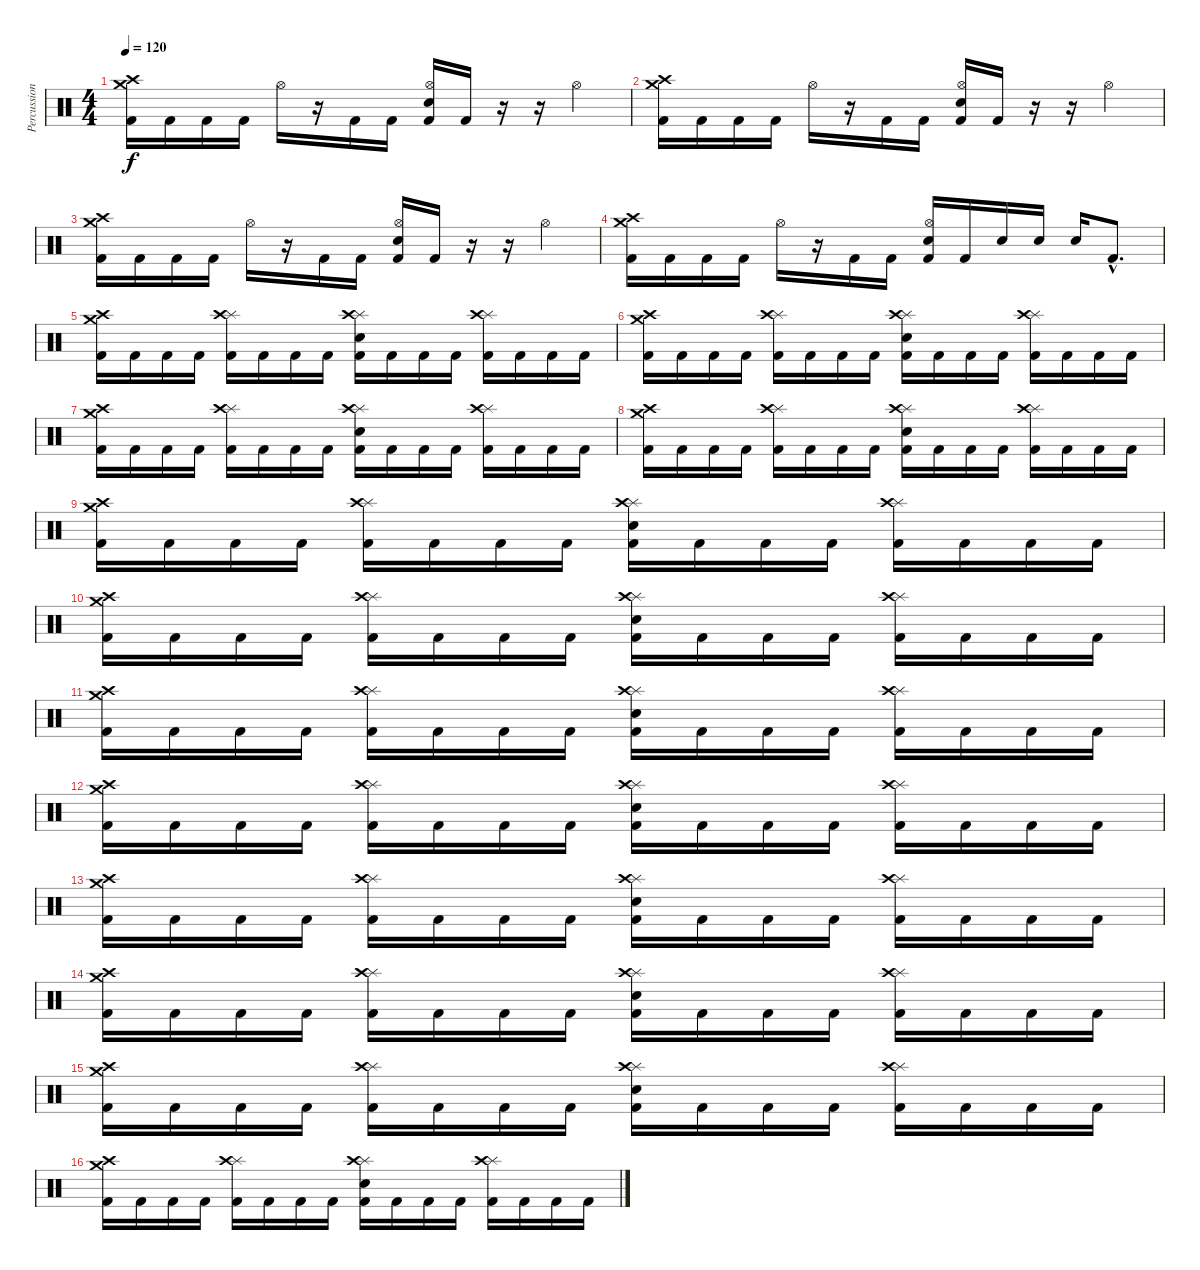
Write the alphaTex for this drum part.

\track ("Percussion" "Percussion") {instrument percussion}
\staff {score}
\articulation defaults
\ts (4 4)
\tempo 120
\clef neutral
\ks c
("Crash medium (hit)" "Crash high (hit)" "Kick (hit) 2").16{dy f} "Kick (hit) 2".16 "Kick (hit) 2".16 "Kick (hit) 2".16 "Hi-Hat (open)".16 r.16 "Kick (hit) 2".16 "Kick (hit) 2".16 ("Hi-Hat (open)" "Snare (hit) 2" "Kick (hit) 2").16 "Kick (hit) 2".16 r.16 r.16 "Hi-Hat (open)".4 |
("Crash medium (hit)" "Crash high (hit)" "Kick (hit) 2").16 "Kick (hit) 2".16 "Kick (hit) 2".16 "Kick (hit) 2".16 "Hi-Hat (open)".16 r.16 "Kick (hit) 2".16 "Kick (hit) 2".16 ("Hi-Hat (open)" "Snare (hit) 2" "Kick (hit) 2").16 "Kick (hit) 2".16 r.16 r.16 "Hi-Hat (open)".4 |
("Crash medium (hit)" "Crash high (hit)" "Kick (hit) 2").16 "Kick (hit) 2".16 "Kick (hit) 2".16 "Kick (hit) 2".16 "Hi-Hat (open)".16 r.16 "Kick (hit) 2".16 "Kick (hit) 2".16 ("Hi-Hat (open)" "Snare (hit) 2" "Kick (hit) 2").16 "Kick (hit) 2".16 r.16 r.16 "Hi-Hat (open)".4 |
("Crash medium (hit)" "Crash high (hit)" "Kick (hit) 2").16 "Kick (hit) 2".16 "Kick (hit) 2".16 "Kick (hit) 2".16 "Hi-Hat (open)".16 r.16 "Kick (hit) 2".16 "Kick (hit) 2".16 ("Hi-Hat (open)" "Snare (hit) 2" "Kick (hit) 2").16 "Kick (hit) 2".16 "Snare (hit) 2".16 "Snare (hit) 2".16 "Snare (hit) 2".16 "Kick (hit) 2"{hac}.8{d} |
("Crash medium (hit)" "Crash high (hit)" "Kick (hit) 2").16 "Kick (hit) 2".16 "Kick (hit) 2".16 "Kick (hit) 2".16 ("Splash (hit)" "Crash high (hit)" "Kick (hit) 2").16 "Kick (hit) 2".16 "Kick (hit) 2".16 "Kick (hit) 2".16 ("Splash (hit)" "Crash high (hit)" "Snare (hit) 2" "Kick (hit) 2").16 "Kick (hit) 2".16 "Kick (hit) 2".16 "Kick (hit) 2".16 ("Splash (hit)" "Crash high (hit)" "Kick (hit) 2").16 "Kick (hit) 2".16 "Kick (hit) 2".16 "Kick (hit) 2".16 |
("Crash medium (hit)" "Crash high (hit)" "Kick (hit) 2").16 "Kick (hit) 2".16 "Kick (hit) 2".16 "Kick (hit) 2".16 ("Splash (hit)" "Crash high (hit)" "Kick (hit) 2").16 "Kick (hit) 2".16 "Kick (hit) 2".16 "Kick (hit) 2".16 ("Splash (hit)" "Crash high (hit)" "Snare (hit) 2" "Kick (hit) 2").16 "Kick (hit) 2".16 "Kick (hit) 2".16 "Kick (hit) 2".16 ("Splash (hit)" "Crash high (hit)" "Kick (hit) 2").16 "Kick (hit) 2".16 "Kick (hit) 2".16 "Kick (hit) 2".16 |
("Crash medium (hit)" "Crash high (hit)" "Kick (hit) 2").16 "Kick (hit) 2".16 "Kick (hit) 2".16 "Kick (hit) 2".16 ("Splash (hit)" "Crash high (hit)" "Kick (hit) 2").16 "Kick (hit) 2".16 "Kick (hit) 2".16 "Kick (hit) 2".16 ("Splash (hit)" "Crash high (hit)" "Snare (hit) 2" "Kick (hit) 2").16 "Kick (hit) 2".16 "Kick (hit) 2".16 "Kick (hit) 2".16 ("Splash (hit)" "Crash high (hit)" "Kick (hit) 2").16 "Kick (hit) 2".16 "Kick (hit) 2".16 "Kick (hit) 2".16 |
("Crash medium (hit)" "Crash high (hit)" "Kick (hit) 2").16 "Kick (hit) 2".16 "Kick (hit) 2".16 "Kick (hit) 2".16 ("Splash (hit)" "Crash high (hit)" "Kick (hit) 2").16 "Kick (hit) 2".16 "Kick (hit) 2".16 "Kick (hit) 2".16 ("Splash (hit)" "Crash high (hit)" "Snare (hit) 2" "Kick (hit) 2").16 "Kick (hit) 2".16 "Kick (hit) 2".16 "Kick (hit) 2".16 ("Splash (hit)" "Crash high (hit)" "Kick (hit) 2").16 "Kick (hit) 2".16 "Kick (hit) 2".16 "Kick (hit) 2".16 |
("Crash medium (hit)" "Crash high (hit)" "Kick (hit) 2").16 "Kick (hit) 2".16 "Kick (hit) 2".16 "Kick (hit) 2".16 ("Splash (hit)" "Crash high (hit)" "Kick (hit) 2").16 "Kick (hit) 2".16 "Kick (hit) 2".16 "Kick (hit) 2".16 ("Splash (hit)" "Crash high (hit)" "Snare (hit) 2" "Kick (hit) 2").16 "Kick (hit) 2".16 "Kick (hit) 2".16 "Kick (hit) 2".16 ("Splash (hit)" "Crash high (hit)" "Kick (hit) 2").16 "Kick (hit) 2".16 "Kick (hit) 2".16 "Kick (hit) 2".16 |
("Crash medium (hit)" "Crash high (hit)" "Kick (hit) 2").16 "Kick (hit) 2".16 "Kick (hit) 2".16 "Kick (hit) 2".16 ("Splash (hit)" "Crash high (hit)" "Kick (hit) 2").16 "Kick (hit) 2".16 "Kick (hit) 2".16 "Kick (hit) 2".16 ("Splash (hit)" "Crash high (hit)" "Snare (hit) 2" "Kick (hit) 2").16 "Kick (hit) 2".16 "Kick (hit) 2".16 "Kick (hit) 2".16 ("Splash (hit)" "Crash high (hit)" "Kick (hit) 2").16 "Kick (hit) 2".16 "Kick (hit) 2".16 "Kick (hit) 2".16 |
("Crash medium (hit)" "Crash high (hit)" "Kick (hit) 2").16 "Kick (hit) 2".16 "Kick (hit) 2".16 "Kick (hit) 2".16 ("Splash (hit)" "Crash high (hit)" "Kick (hit) 2").16 "Kick (hit) 2".16 "Kick (hit) 2".16 "Kick (hit) 2".16 ("Splash (hit)" "Crash high (hit)" "Snare (hit) 2" "Kick (hit) 2").16 "Kick (hit) 2".16 "Kick (hit) 2".16 "Kick (hit) 2".16 ("Splash (hit)" "Crash high (hit)" "Kick (hit) 2").16 "Kick (hit) 2".16 "Kick (hit) 2".16 "Kick (hit) 2".16 |
("Crash medium (hit)" "Crash high (hit)" "Kick (hit) 2").16 "Kick (hit) 2".16 "Kick (hit) 2".16 "Kick (hit) 2".16 ("Splash (hit)" "Crash high (hit)" "Kick (hit) 2").16 "Kick (hit) 2".16 "Kick (hit) 2".16 "Kick (hit) 2".16 ("Splash (hit)" "Crash high (hit)" "Snare (hit) 2" "Kick (hit) 2").16 "Kick (hit) 2".16 "Kick (hit) 2".16 "Kick (hit) 2".16 ("Splash (hit)" "Crash high (hit)" "Kick (hit) 2").16 "Kick (hit) 2".16 "Kick (hit) 2".16 "Kick (hit) 2".16 |
("Crash medium (hit)" "Crash high (hit)" "Kick (hit) 2").16 "Kick (hit) 2".16 "Kick (hit) 2".16 "Kick (hit) 2".16 ("Splash (hit)" "Crash high (hit)" "Kick (hit) 2").16 "Kick (hit) 2".16 "Kick (hit) 2".16 "Kick (hit) 2".16 ("Splash (hit)" "Crash high (hit)" "Snare (hit) 2" "Kick (hit) 2").16 "Kick (hit) 2".16 "Kick (hit) 2".16 "Kick (hit) 2".16 ("Splash (hit)" "Crash high (hit)" "Kick (hit) 2").16 "Kick (hit) 2".16 "Kick (hit) 2".16 "Kick (hit) 2".16 |
("Crash medium (hit)" "Crash high (hit)" "Kick (hit) 2").16 "Kick (hit) 2".16 "Kick (hit) 2".16 "Kick (hit) 2".16 ("Splash (hit)" "Crash high (hit)" "Kick (hit) 2").16 "Kick (hit) 2".16 "Kick (hit) 2".16 "Kick (hit) 2".16 ("Splash (hit)" "Crash high (hit)" "Snare (hit) 2" "Kick (hit) 2").16 "Kick (hit) 2".16 "Kick (hit) 2".16 "Kick (hit) 2".16 ("Splash (hit)" "Crash high (hit)" "Kick (hit) 2").16 "Kick (hit) 2".16 "Kick (hit) 2".16 "Kick (hit) 2".16 |
("Crash medium (hit)" "Crash high (hit)" "Kick (hit) 2").16 "Kick (hit) 2".16 "Kick (hit) 2".16 "Kick (hit) 2".16 ("Splash (hit)" "Crash high (hit)" "Kick (hit) 2").16 "Kick (hit) 2".16 "Kick (hit) 2".16 "Kick (hit) 2".16 ("Splash (hit)" "Crash high (hit)" "Snare (hit) 2" "Kick (hit) 2").16 "Kick (hit) 2".16 "Kick (hit) 2".16 "Kick (hit) 2".16 ("Splash (hit)" "Crash high (hit)" "Kick (hit) 2").16 "Kick (hit) 2".16 "Kick (hit) 2".16 "Kick (hit) 2".16 |
("Crash medium (hit)" "Crash high (hit)" "Kick (hit) 2").16 "Kick (hit) 2".16 "Kick (hit) 2".16 "Kick (hit) 2".16 ("Splash (hit)" "Crash high (hit)" "Kick (hit) 2").16 "Kick (hit) 2".16 "Kick (hit) 2".16 "Kick (hit) 2".16 ("Splash (hit)" "Crash high (hit)" "Snare (hit) 2" "Kick (hit) 2").16 "Kick (hit) 2".16 "Kick (hit) 2".16 "Kick (hit) 2".16 ("Splash (hit)" "Crash high (hit)" "Kick (hit) 2").16 "Kick (hit) 2".16 "Kick (hit) 2".16 "Kick (hit) 2".16
